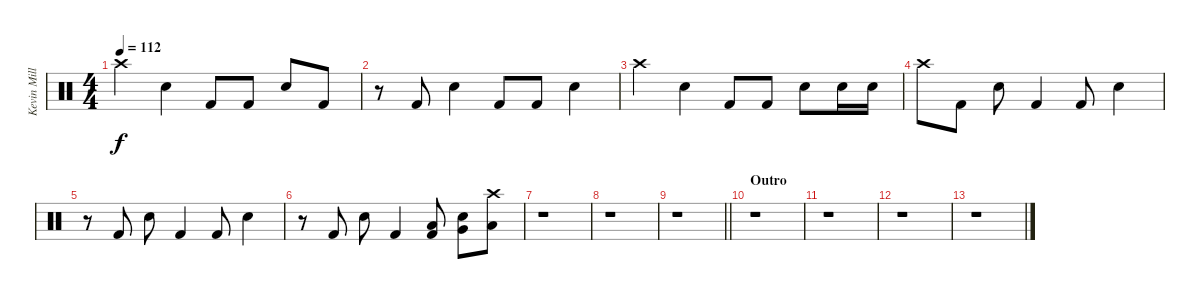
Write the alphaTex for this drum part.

\track ("Kevin Miller (Drums)" "Kevin Mill") {instrument percussion}
\staff {score}
\articulation defaults
\ts (4 4)
\tempo 112
\clef neutral
\ks c "Crash high (hit)".4{dy f} "Electric Snare (hit)".4 "Kick (hit) 2".8 "Kick (hit) 2".8 "Electric Snare (hit)".8 "Kick (hit) 2".8
|
r.8 "Kick (hit) 2".8 "Electric Snare (hit)".4 "Kick (hit) 2".8 "Kick (hit) 2".8 "Electric Snare (hit)".4 |
"Crash high (hit)".4 "Electric Snare (hit)".4 "Kick (hit) 2".8 "Kick (hit) 2".8 "Electric Snare (hit)".8 "Electric Snare (hit)".16 "Electric Snare (hit)".16 |
"Crash high (hit)".8 "Kick (hit) 2".8 "Electric Snare (hit)".8 "Kick (hit) 2".4 "Kick (hit) 2".8 "Electric Snare (hit)".4 |
r.8 "Kick (hit) 2".8 "Electric Snare (hit)".8 "Kick (hit) 2".4 "Kick (hit) 2".8 "Electric Snare (hit)".4 |
r.8 "Kick (hit) 2".8 "Electric Snare (hit)".8 "Kick (hit) 2".4 ("Kick (hit) 2" "Low Tom (hit)").8 ("Electric Snare (hit)" "Very Low Tom (hit)").8 ("Crash high (hit)" "Low Floor Tom (hit)").8 |
r.1 |
r.1 |
\barLineRight lightlight
r.1 |
\section ("" "Outro")
r.1 |
r.1 |
r.1 |
r.1
